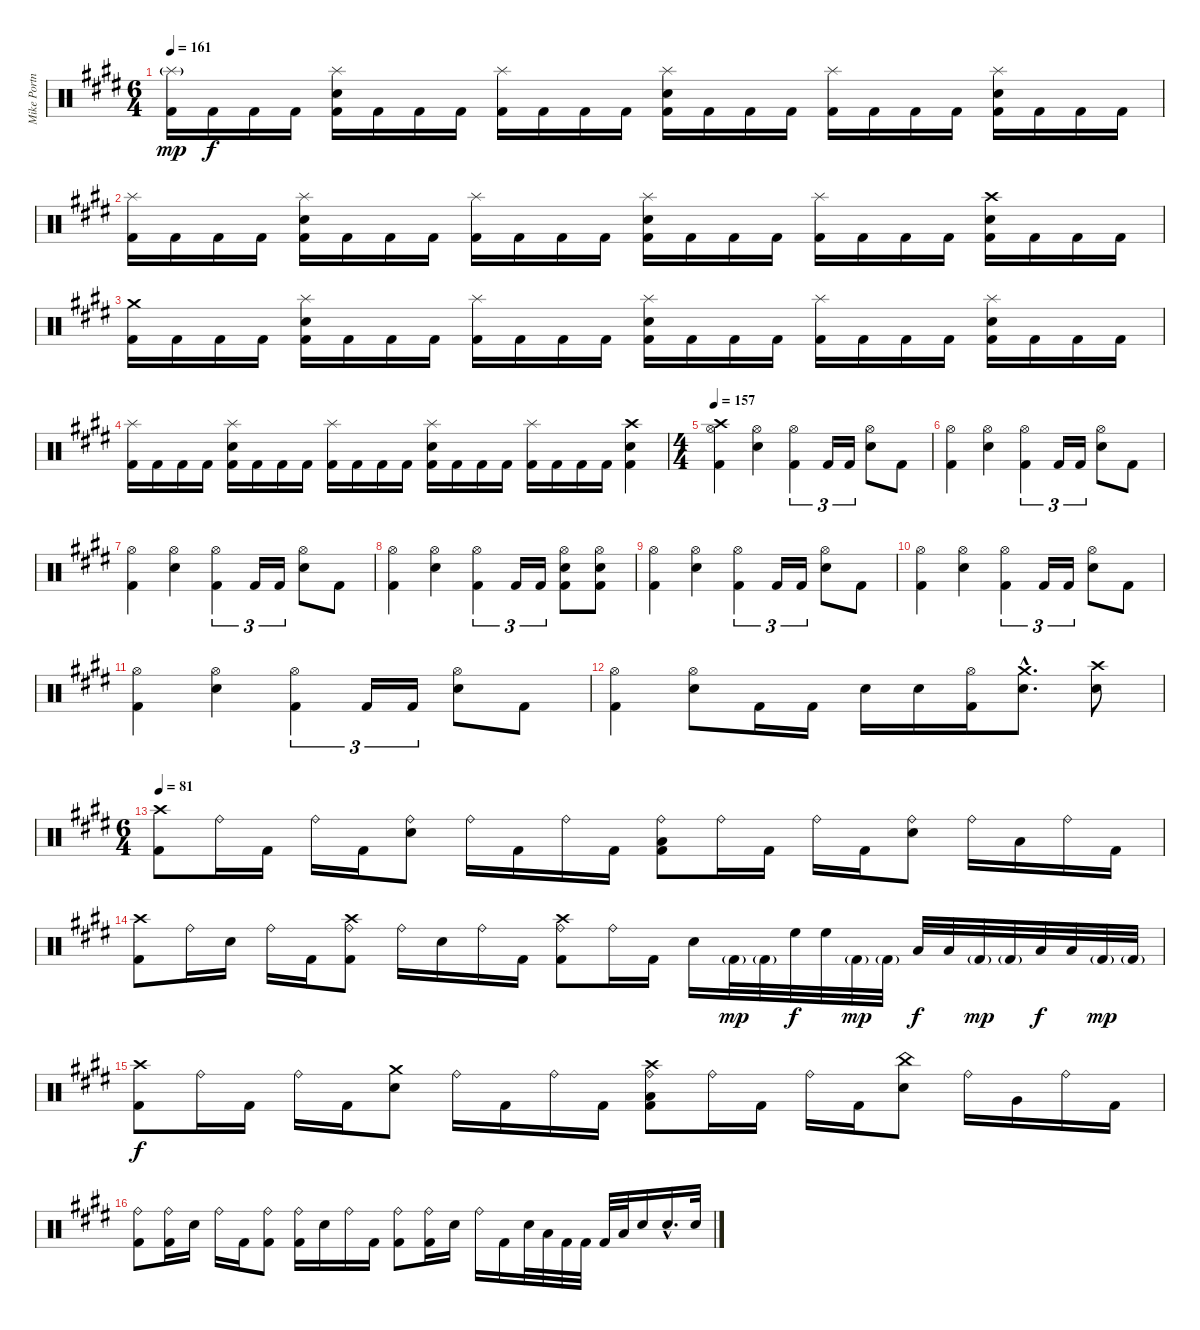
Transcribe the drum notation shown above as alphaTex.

\track ("Mike Portnoy" "Mike Portn") {instrument percussion}
\staff {score}
\articulation defaults
\ts (6 4)
\tempo 161
\clef neutral
\ks e
("Splash (hit)"{g} "Kick (hit) 2").16{dy mp} "Kick (hit) 2".16{dy f} "Kick (hit) 2".16 "Kick (hit) 2".16 ("Splash (hit)" "Snare (hit) 2" "Kick (hit) 2").16 "Kick (hit) 2".16 "Kick (hit) 2".16 "Kick (hit) 2".16 ("Splash (hit)" "Kick (hit) 2").16 "Kick (hit) 2".16 "Kick (hit) 2".16 "Kick (hit) 2".16 ("Splash (hit)" "Snare (hit) 2" "Kick (hit) 2").16 "Kick (hit) 2".16 "Kick (hit) 2".16 "Kick (hit) 2".16 ("Splash (hit)" "Kick (hit) 2").16 "Kick (hit) 2".16 "Kick (hit) 2".16 "Kick (hit) 2".16 ("Splash (hit)" "Snare (hit) 2" "Kick (hit) 2").16 "Kick (hit) 2".16 "Kick (hit) 2".16 "Kick (hit) 2".16 |
("Splash (hit)" "Kick (hit) 2").16 "Kick (hit) 2".16 "Kick (hit) 2".16 "Kick (hit) 2".16 ("Splash (hit)" "Snare (hit) 2" "Kick (hit) 2").16 "Kick (hit) 2".16 "Kick (hit) 2".16 "Kick (hit) 2".16 ("Splash (hit)" "Kick (hit) 2").16 "Kick (hit) 2".16 "Kick (hit) 2".16 "Kick (hit) 2".16 ("Splash (hit)" "Snare (hit) 2" "Kick (hit) 2").16 "Kick (hit) 2".16 "Kick (hit) 2".16 "Kick (hit) 2".16 ("Splash (hit)" "Kick (hit) 2").16 "Kick (hit) 2".16 "Kick (hit) 2".16 "Kick (hit) 2".16 ("Crash high (hit)" "Snare (hit) 2" "Kick (hit) 2").16 "Kick (hit) 2".16 "Kick (hit) 2".16 "Kick (hit) 2".16 |
("Crash medium (hit)" "Kick (hit) 2").16 "Kick (hit) 2".16 "Kick (hit) 2".16 "Kick (hit) 2".16 ("Splash (hit)" "Snare (hit) 2" "Kick (hit) 2").16 "Kick (hit) 2".16 "Kick (hit) 2".16 "Kick (hit) 2".16 ("Splash (hit)" "Kick (hit) 2").16 "Kick (hit) 2".16 "Kick (hit) 2".16 "Kick (hit) 2".16 ("Splash (hit)" "Snare (hit) 2" "Kick (hit) 2").16 "Kick (hit) 2".16 "Kick (hit) 2".16 "Kick (hit) 2".16 ("Splash (hit)" "Kick (hit) 2").16 "Kick (hit) 2".16 "Kick (hit) 2".16 "Kick (hit) 2".16 ("Splash (hit)" "Snare (hit) 2" "Kick (hit) 2").16 "Kick (hit) 2".16 "Kick (hit) 2".16 "Kick (hit) 2".16 |
("Splash (hit)" "Kick (hit) 2").16 "Kick (hit) 2".16 "Kick (hit) 2".16 "Kick (hit) 2".16 ("Splash (hit)" "Snare (hit) 2" "Kick (hit) 2").16 "Kick (hit) 2".16 "Kick (hit) 2".16 "Kick (hit) 2".16 ("Splash (hit)" "Kick (hit) 2").16 "Kick (hit) 2".16 "Kick (hit) 2".16 "Kick (hit) 2".16 ("Splash (hit)" "Snare (hit) 2" "Kick (hit) 2").16 "Kick (hit) 2".16 "Kick (hit) 2".16 "Kick (hit) 2".16 ("Splash (hit)" "Kick (hit) 2").16 "Kick (hit) 2".16 "Kick (hit) 2".16 "Kick (hit) 2".16 ("Crash high (hit)" "Snare (hit) 2" "Kick (hit) 2").4 |
\ts (4 4)
\tempo 157
("Hi-Hat (open)" "Crash high (hit)" "Kick (hit) 2").4 ("Hi-Hat (open)" "Snare (hit) 2").4 ("Hi-Hat (open)" "Kick (hit) 2").4{tu (3 2)} "Kick (hit) 2".16{tu (3 2)} "Kick (hit) 2".16{tu (3 2)} ("Hi-Hat (open)" "Snare (hit) 2").8 "Kick (hit) 2".8 |
("Hi-Hat (open)" "Kick (hit) 2").4 ("Hi-Hat (open)" "Snare (hit) 2").4 ("Hi-Hat (open)" "Kick (hit) 2").4{tu (3 2)} "Kick (hit) 2".16{tu (3 2)} "Kick (hit) 2".16{tu (3 2)} ("Hi-Hat (open)" "Snare (hit) 2").8 "Kick (hit) 2".8 |
("Hi-Hat (open)" "Kick (hit) 2").4 ("Hi-Hat (open)" "Snare (hit) 2").4 ("Hi-Hat (open)" "Kick (hit) 2").4{tu (3 2)} "Kick (hit) 2".16{tu (3 2)} "Kick (hit) 2".16{tu (3 2)} ("Hi-Hat (open)" "Snare (hit) 2").8 "Kick (hit) 2".8 |
("Hi-Hat (open)" "Kick (hit) 2").4 ("Hi-Hat (open)" "Snare (hit) 2").4 ("Hi-Hat (open)" "Kick (hit) 2").4{tu (3 2)} "Kick (hit) 2".16{tu (3 2)} "Kick (hit) 2".16{tu (3 2)} ("Hi-Hat (open)" "Snare (hit) 2" "Kick (hit) 2").8 ("Hi-Hat (open)" "Snare (hit) 2" "Kick (hit) 2").8 |
("Hi-Hat (open)" "Kick (hit) 2").4 ("Hi-Hat (open)" "Snare (hit) 2").4 ("Hi-Hat (open)" "Kick (hit) 2").4{tu (3 2)} "Kick (hit) 2".16{tu (3 2)} "Kick (hit) 2".16{tu (3 2)} ("Hi-Hat (open)" "Snare (hit) 2").8 "Kick (hit) 2".8 |
("Hi-Hat (open)" "Kick (hit) 2").4 ("Hi-Hat (open)" "Snare (hit) 2").4 ("Hi-Hat (open)" "Kick (hit) 2").4{tu (3 2)} "Kick (hit) 2".16{tu (3 2)} "Kick (hit) 2".16{tu (3 2)} ("Hi-Hat (open)" "Snare (hit) 2").8 "Kick (hit) 2".8 |
("Hi-Hat (open)" "Kick (hit) 2").4 ("Hi-Hat (open)" "Snare (hit) 2").4 ("Hi-Hat (open)" "Kick (hit) 2").4{tu (3 2)} "Kick (hit) 2".16{tu (3 2)} "Kick (hit) 2".16{tu (3 2)} ("Hi-Hat (open)" "Snare (hit) 2").8 "Kick (hit) 2".8 |
("Hi-Hat (open)" "Kick (hit) 2").4 ("Hi-Hat (open)" "Snare (hit) 2").8 "Kick (hit) 2".16 "Kick (hit) 2".16 "Snare (hit) 2".16 "Snare (hit) 2".16 ("Hi-Hat (open)" "Kick (hit) 2").16 ("Crash medium (hit)"{hac} "Snare (hit) 2"{hac}).8{d} ("Crash high (hit)" "Snare (hit) 2").8 |
\ts (6 4)
\tempo 81
("Crash high (hit)" "Kick (hit) 2").8 "Ride (bell)".16 "Kick (hit) 2".16 "Ride (bell)".16 "Kick (hit) 2".16 ("Ride (bell)" "Snare (hit) 2").8 "Ride (bell)".16 "Kick (hit) 2".16 "Ride (bell)".16 "Kick (hit) 2".16 ("Ride (bell)" "Low Tom (hit)" "Kick (hit) 2").8 "Ride (bell)".16 "Kick (hit) 2".16 "Ride (bell)".16 "Kick (hit) 2".16 ("Ride (bell)" "Snare (hit) 2").8 "Ride (bell)".16 "Low Tom (hit)".16 "Ride (bell)".16 "Kick (hit) 2".16 |
("Crash high (hit)" "Kick (hit) 2").8 "Ride (bell)".16 "Snare (hit) 2".16 "Ride (bell)".16 "Kick (hit) 2".16 ("Ride (bell)" "Crash high (hit)" "Kick (hit) 2").8 "Ride (bell)".16 "Snare (hit) 2".16 "Ride (bell)".16 "Kick (hit) 2".16 ("Ride (bell)" "Crash high (hit)" "Kick (hit) 2").8 "Ride (bell)".16 "Kick (hit) 2".16 "Snare (hit) 2".16 "Kick (hit) 2"{g}.32{dy mp} "Kick (hit) 2"{g}.32 "High Floor Tom (hit)".32{dy f} "High Floor Tom (hit)".32 "Kick (hit) 2"{g}.32{dy mp} "Kick (hit) 2"{g}.32 "Low Tom (hit)".32{dy f} "Low Tom (hit)".32 "Kick (hit) 2"{g}.32{dy mp} "Kick (hit) 2"{g}.32 "Low Floor Tom (hit)".32{dy f} "Low Floor Tom (hit)".32 "Kick (hit) 2"{g}.32{dy mp} "Kick (hit) 2"{g}.32 |
("Crash high (hit)" "Kick (hit) 2").8{dy f} "Ride (bell)".16 "Kick (hit) 2".16 "Ride (bell)".16 "Kick (hit) 2".16 ("Crash medium (hit)" "Snare (hit) 2").8 "Ride (bell)".16 "Kick (hit) 2".16 "Ride (bell)".16 "Kick (hit) 2".16 ("Ride (bell)" "Crash high (hit)" "Low Tom (hit)" "Kick (hit) 2").8 "Ride (bell)".16 "Kick (hit) 2".16 "Ride (bell)".16 "Kick (hit) 2".16 ("China (hit)" "Snare (hit) 2").8 "Ride (bell)".16 "Very Low Tom (hit)".16 "Ride (bell)".16 "Kick (hit) 2".16 |
("Ride (bell)" "Kick (hit) 2").8 ("Ride (bell)" "Kick (hit) 2").16 "Snare (hit) 2".16 "Ride (bell)".16 "Kick (hit) 2".16 ("Ride (bell)" "Kick (hit) 2").8 ("Ride (bell)" "Kick (hit) 2").16 "Snare (hit) 2".16 "Ride (bell)".16 "Kick (hit) 2".16 ("Ride (bell)" "Kick (hit) 2").8 ("Ride (bell)" "Kick (hit) 2").16 "Snare (hit) 2".16 "Ride (bell)".16 "Kick (hit) 2".16 "Snare (hit) 2".32 "Low Tom (hit)".32 "Kick (hit) 2".32 "Kick (hit) 2".32 "Kick (hit) 2".32 "Low Tom (hit)".32 "Snare (hit) 2".16 "Snare (hit) 2"{hac}.16{d} "Snare (hit) 2".32
